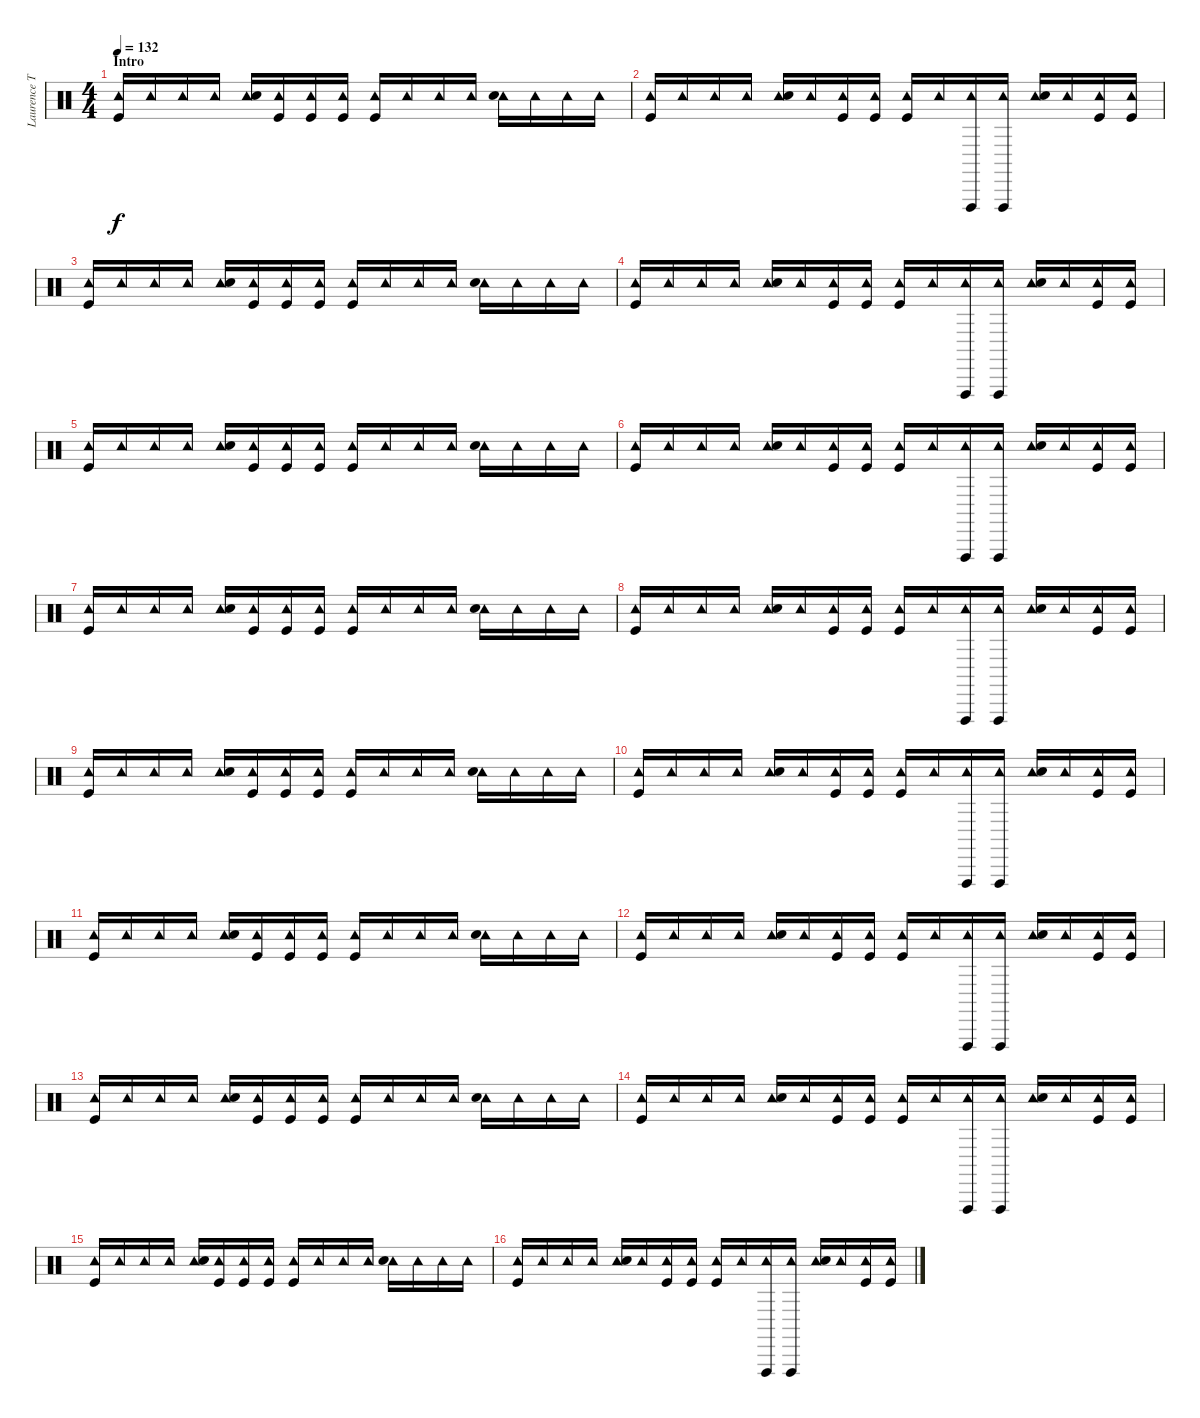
\track ("Laurence Tolhurst (drums)" "Laurence T") {instrument percussion}
\staff {score}
\articulation defaults
\ts (4 4)
\section ("" "Intro")
\tempo 132
\clef neutral
\ks c
("Tambourine (hit)" "Kick (hit)").16{dy f} "Tambourine (hit)".16 "Tambourine (hit)".16 "Tambourine (hit)".16 ("Tambourine (hit)" "Snare (hit) 2").16 ("Tambourine (hit)" "Kick (hit)").16 ("Tambourine (hit)" "Kick (hit)").16 ("Tambourine (hit)" "Kick (hit)").16 ("Tambourine (hit)" "Kick (hit)").16 "Tambourine (hit)".16 "Tambourine (hit)".16 "Tambourine (hit)".16 ("Tambourine (hit)" "Snare (hit) 2").16 "Tambourine (hit)".16 "Tambourine (hit)".16 "Tambourine (hit)".16 |
("Tambourine (hit)" "Kick (hit)").16 "Tambourine (hit)".16 "Tambourine (hit)".16 "Tambourine (hit)".16 ("Tambourine (hit)" "Snare (hit) 2").16 "Tambourine (hit)".16 ("Tambourine (hit)" "Kick (hit)").16 ("Tambourine (hit)" "Kick (hit)").16 ("Tambourine (hit)" "Kick (hit)").16 "Tambourine (hit)".16 ("Tambourine (hit)" "Vibraslap (hit)").16 ("Tambourine (hit)" "Vibraslap (hit)").16 ("Tambourine (hit)" "Snare (hit) 2").16 "Tambourine (hit)".16 ("Tambourine (hit)" "Kick (hit)").16 ("Tambourine (hit)" "Kick (hit)").16 |
("Tambourine (hit)" "Kick (hit)").16 "Tambourine (hit)".16 "Tambourine (hit)".16 "Tambourine (hit)".16 ("Tambourine (hit)" "Snare (hit) 2").16 ("Tambourine (hit)" "Kick (hit)").16 ("Tambourine (hit)" "Kick (hit)").16 ("Tambourine (hit)" "Kick (hit)").16 ("Tambourine (hit)" "Kick (hit)").16 "Tambourine (hit)".16 "Tambourine (hit)".16 "Tambourine (hit)".16 ("Tambourine (hit)" "Snare (hit) 2").16 "Tambourine (hit)".16 "Tambourine (hit)".16 "Tambourine (hit)".16 |
("Tambourine (hit)" "Kick (hit)").16 "Tambourine (hit)".16 "Tambourine (hit)".16 "Tambourine (hit)".16 ("Tambourine (hit)" "Snare (hit) 2").16 "Tambourine (hit)".16 ("Tambourine (hit)" "Kick (hit)").16 ("Tambourine (hit)" "Kick (hit)").16 ("Tambourine (hit)" "Kick (hit)").16 "Tambourine (hit)".16 ("Tambourine (hit)" "Vibraslap (hit)").16 ("Tambourine (hit)" "Vibraslap (hit)").16 ("Tambourine (hit)" "Snare (hit) 2").16 "Tambourine (hit)".16 ("Tambourine (hit)" "Kick (hit)").16 ("Tambourine (hit)" "Kick (hit)").16 |
("Tambourine (hit)" "Kick (hit)").16 "Tambourine (hit)".16 "Tambourine (hit)".16 "Tambourine (hit)".16 ("Tambourine (hit)" "Snare (hit) 2").16 ("Tambourine (hit)" "Kick (hit)").16 ("Tambourine (hit)" "Kick (hit)").16 ("Tambourine (hit)" "Kick (hit)").16 ("Tambourine (hit)" "Kick (hit)").16 "Tambourine (hit)".16 "Tambourine (hit)".16 "Tambourine (hit)".16 ("Tambourine (hit)" "Snare (hit) 2").16 "Tambourine (hit)".16 "Tambourine (hit)".16 "Tambourine (hit)".16 |
("Tambourine (hit)" "Kick (hit)").16 "Tambourine (hit)".16 "Tambourine (hit)".16 "Tambourine (hit)".16 ("Tambourine (hit)" "Snare (hit) 2").16 "Tambourine (hit)".16 ("Tambourine (hit)" "Kick (hit)").16 ("Tambourine (hit)" "Kick (hit)").16 ("Tambourine (hit)" "Kick (hit)").16 "Tambourine (hit)".16 ("Tambourine (hit)" "Vibraslap (hit)").16 ("Tambourine (hit)" "Vibraslap (hit)").16 ("Tambourine (hit)" "Snare (hit) 2").16 "Tambourine (hit)".16 ("Tambourine (hit)" "Kick (hit)").16 ("Tambourine (hit)" "Kick (hit)").16 |
("Tambourine (hit)" "Kick (hit)").16 "Tambourine (hit)".16 "Tambourine (hit)".16 "Tambourine (hit)".16 ("Tambourine (hit)" "Snare (hit) 2").16 ("Tambourine (hit)" "Kick (hit)").16 ("Tambourine (hit)" "Kick (hit)").16 ("Tambourine (hit)" "Kick (hit)").16 ("Tambourine (hit)" "Kick (hit)").16 "Tambourine (hit)".16 "Tambourine (hit)".16 "Tambourine (hit)".16 ("Tambourine (hit)" "Snare (hit) 2").16 "Tambourine (hit)".16 "Tambourine (hit)".16 "Tambourine (hit)".16 |
("Tambourine (hit)" "Kick (hit)").16 "Tambourine (hit)".16 "Tambourine (hit)".16 "Tambourine (hit)".16 ("Tambourine (hit)" "Snare (hit) 2").16 "Tambourine (hit)".16 ("Tambourine (hit)" "Kick (hit)").16 ("Tambourine (hit)" "Kick (hit)").16 ("Tambourine (hit)" "Kick (hit)").16 "Tambourine (hit)".16 ("Tambourine (hit)" "Vibraslap (hit)").16 ("Tambourine (hit)" "Vibraslap (hit)").16 ("Tambourine (hit)" "Snare (hit) 2").16 "Tambourine (hit)".16 ("Tambourine (hit)" "Kick (hit)").16 ("Tambourine (hit)" "Kick (hit)").16 |
("Tambourine (hit)" "Kick (hit)").16 "Tambourine (hit)".16 "Tambourine (hit)".16 "Tambourine (hit)".16 ("Tambourine (hit)" "Snare (hit) 2").16 ("Tambourine (hit)" "Kick (hit)").16 ("Tambourine (hit)" "Kick (hit)").16 ("Tambourine (hit)" "Kick (hit)").16 ("Tambourine (hit)" "Kick (hit)").16 "Tambourine (hit)".16 "Tambourine (hit)".16 "Tambourine (hit)".16 ("Tambourine (hit)" "Snare (hit) 2").16 "Tambourine (hit)".16 "Tambourine (hit)".16 "Tambourine (hit)".16 |
("Tambourine (hit)" "Kick (hit)").16 "Tambourine (hit)".16 "Tambourine (hit)".16 "Tambourine (hit)".16 ("Tambourine (hit)" "Snare (hit) 2").16 "Tambourine (hit)".16 ("Tambourine (hit)" "Kick (hit)").16 ("Tambourine (hit)" "Kick (hit)").16 ("Tambourine (hit)" "Kick (hit)").16 "Tambourine (hit)".16 ("Tambourine (hit)" "Vibraslap (hit)").16 ("Tambourine (hit)" "Vibraslap (hit)").16 ("Tambourine (hit)" "Snare (hit) 2").16 "Tambourine (hit)".16 ("Tambourine (hit)" "Kick (hit)").16 ("Tambourine (hit)" "Kick (hit)").16 |
("Tambourine (hit)" "Kick (hit)").16 "Tambourine (hit)".16 "Tambourine (hit)".16 "Tambourine (hit)".16 ("Tambourine (hit)" "Snare (hit) 2").16 ("Tambourine (hit)" "Kick (hit)").16 ("Tambourine (hit)" "Kick (hit)").16 ("Tambourine (hit)" "Kick (hit)").16 ("Tambourine (hit)" "Kick (hit)").16 "Tambourine (hit)".16 "Tambourine (hit)".16 "Tambourine (hit)".16 ("Tambourine (hit)" "Snare (hit) 2").16 "Tambourine (hit)".16 "Tambourine (hit)".16 "Tambourine (hit)".16 |
("Tambourine (hit)" "Kick (hit)").16 "Tambourine (hit)".16 "Tambourine (hit)".16 "Tambourine (hit)".16 ("Tambourine (hit)" "Snare (hit) 2").16 "Tambourine (hit)".16 ("Tambourine (hit)" "Kick (hit)").16 ("Tambourine (hit)" "Kick (hit)").16 ("Tambourine (hit)" "Kick (hit)").16 "Tambourine (hit)".16 ("Tambourine (hit)" "Vibraslap (hit)").16 ("Tambourine (hit)" "Vibraslap (hit)").16 ("Tambourine (hit)" "Snare (hit) 2").16 "Tambourine (hit)".16 ("Tambourine (hit)" "Kick (hit)").16 ("Tambourine (hit)" "Kick (hit)").16 |
("Tambourine (hit)" "Kick (hit)").16 "Tambourine (hit)".16 "Tambourine (hit)".16 "Tambourine (hit)".16 ("Tambourine (hit)" "Snare (hit) 2").16 ("Tambourine (hit)" "Kick (hit)").16 ("Tambourine (hit)" "Kick (hit)").16 ("Tambourine (hit)" "Kick (hit)").16 ("Tambourine (hit)" "Kick (hit)").16 "Tambourine (hit)".16 "Tambourine (hit)".16 "Tambourine (hit)".16 ("Tambourine (hit)" "Snare (hit) 2").16 "Tambourine (hit)".16 "Tambourine (hit)".16 "Tambourine (hit)".16 |
("Tambourine (hit)" "Kick (hit)").16 "Tambourine (hit)".16 "Tambourine (hit)".16 "Tambourine (hit)".16 ("Tambourine (hit)" "Snare (hit) 2").16 "Tambourine (hit)".16 ("Tambourine (hit)" "Kick (hit)").16 ("Tambourine (hit)" "Kick (hit)").16 ("Tambourine (hit)" "Kick (hit)").16 "Tambourine (hit)".16 ("Tambourine (hit)" "Vibraslap (hit)").16 ("Tambourine (hit)" "Vibraslap (hit)").16 ("Tambourine (hit)" "Snare (hit) 2").16 "Tambourine (hit)".16 ("Tambourine (hit)" "Kick (hit)").16 ("Tambourine (hit)" "Kick (hit)").16 |
("Tambourine (hit)" "Kick (hit)").16 "Tambourine (hit)".16 "Tambourine (hit)".16 "Tambourine (hit)".16 ("Tambourine (hit)" "Snare (hit) 2").16 ("Tambourine (hit)" "Kick (hit)").16 ("Tambourine (hit)" "Kick (hit)").16 ("Tambourine (hit)" "Kick (hit)").16 ("Tambourine (hit)" "Kick (hit)").16 "Tambourine (hit)".16 "Tambourine (hit)".16 "Tambourine (hit)".16 ("Tambourine (hit)" "Snare (hit) 2").16 "Tambourine (hit)".16 "Tambourine (hit)".16 "Tambourine (hit)".16 |
("Tambourine (hit)" "Kick (hit)").16 "Tambourine (hit)".16 "Tambourine (hit)".16 "Tambourine (hit)".16 ("Tambourine (hit)" "Snare (hit) 2").16 "Tambourine (hit)".16 ("Tambourine (hit)" "Kick (hit)").16 ("Tambourine (hit)" "Kick (hit)").16 ("Tambourine (hit)" "Kick (hit)").16 "Tambourine (hit)".16 ("Tambourine (hit)" "Vibraslap (hit)").16 ("Tambourine (hit)" "Vibraslap (hit)").16 ("Tambourine (hit)" "Snare (hit) 2").16 "Tambourine (hit)".16 ("Tambourine (hit)" "Kick (hit)").16 ("Tambourine (hit)" "Kick (hit)").16
